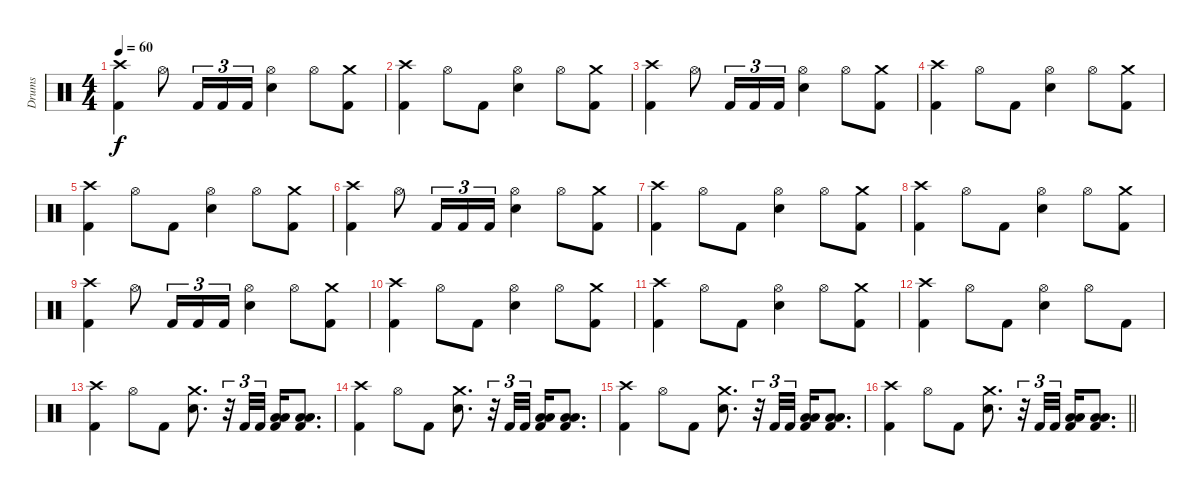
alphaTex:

\track ("Drums" "Drums") {instrument percussion}
\staff {score}
\articulation defaults
\ts (4 4)
\tempo 60
\clef neutral
\ks c
("Crash high (hit)" "Kick (hit) 2").4{dy f} "Hi-Hat (open)".8 "Kick (hit) 2".16{tu (3 2)} "Kick (hit) 2".16{tu (3 2)} "Kick (hit) 2".16{tu (3 2)} ("Hi-Hat (open)" "Electric Snare (hit)").4 "Hi-Hat (open)".8 ("Crash medium (hit)" "Kick (hit) 2").8 |
("Crash high (hit)" "Kick (hit) 2").4 "Hi-Hat (open)".8 "Kick (hit) 2".8 ("Hi-Hat (open)" "Electric Snare (hit)").4 "Hi-Hat (open)".8 ("Crash medium (hit)" "Kick (hit) 2").8 |
("Crash high (hit)" "Kick (hit) 2").4 "Hi-Hat (open)".8 "Kick (hit) 2".16{tu (3 2)} "Kick (hit) 2".16{tu (3 2)} "Kick (hit) 2".16{tu (3 2)} ("Hi-Hat (open)" "Electric Snare (hit)").4 "Hi-Hat (open)".8 ("Crash medium (hit)" "Kick (hit) 2").8 |
("Crash high (hit)" "Kick (hit) 2").4 "Hi-Hat (open)".8 "Kick (hit) 2".8 ("Hi-Hat (open)" "Electric Snare (hit)").4 "Hi-Hat (open)".8 ("Crash medium (hit)" "Kick (hit) 2").8 |
("Crash high (hit)" "Kick (hit) 2").4 "Hi-Hat (open)".8 "Kick (hit) 2".8 ("Hi-Hat (open)" "Electric Snare (hit)").4 "Hi-Hat (open)".8 ("Crash medium (hit)" "Kick (hit) 2").8 |
("Crash high (hit)" "Kick (hit) 2").4 "Hi-Hat (open)".8 "Kick (hit) 2".16{tu (3 2)} "Kick (hit) 2".16{tu (3 2)} "Kick (hit) 2".16{tu (3 2)} ("Hi-Hat (open)" "Electric Snare (hit)").4 "Hi-Hat (open)".8 ("Crash medium (hit)" "Kick (hit) 2").8 |
("Crash high (hit)" "Kick (hit) 2").4 "Hi-Hat (open)".8 "Kick (hit) 2".8 ("Hi-Hat (open)" "Electric Snare (hit)").4 "Hi-Hat (open)".8 ("Crash medium (hit)" "Kick (hit) 2").8 |
("Crash high (hit)" "Kick (hit) 2").4 "Hi-Hat (open)".8 "Kick (hit) 2".8 ("Hi-Hat (open)" "Electric Snare (hit)").4 "Hi-Hat (open)".8 ("Crash medium (hit)" "Kick (hit) 2").8 |
("Crash high (hit)" "Kick (hit) 2").4 "Hi-Hat (open)".8 "Kick (hit) 2".16{tu (3 2)} "Kick (hit) 2".16{tu (3 2)} "Kick (hit) 2".16{tu (3 2)} ("Hi-Hat (open)" "Electric Snare (hit)").4 "Hi-Hat (open)".8 ("Crash medium (hit)" "Kick (hit) 2").8 |
("Crash high (hit)" "Kick (hit) 2").4 "Hi-Hat (open)".8 "Kick (hit) 2".8 ("Hi-Hat (open)" "Electric Snare (hit)").4 "Hi-Hat (open)".8 ("Crash medium (hit)" "Kick (hit) 2").8 |
("Crash high (hit)" "Kick (hit) 2").4 "Hi-Hat (open)".8 "Kick (hit) 2".8 ("Hi-Hat (open)" "Electric Snare (hit)").4 "Hi-Hat (open)".8 ("Crash medium (hit)" "Kick (hit) 2").8 |
("Crash high (hit)" "Kick (hit) 2").4 "Hi-Hat (open)".8 "Kick (hit) 2".8 ("Hi-Hat (open)" "Electric Snare (hit)").4 "Hi-Hat (open)".8 "Kick (hit) 2".8 |
("Crash high (hit)" "Kick (hit) 2").4 "Hi-Hat (open)".8 "Kick (hit) 2".8 ("Crash medium (hit)" "Electric Snare (hit)").8{d} r.32{tu (3 2)} "Kick (hit) 2".32{tu (3 2)} "Kick (hit) 2".32{tu (3 2)} ("Low Tom (hit)" "Low Floor Tom (hit)" "Kick (hit) 2").16 ("Low Tom (hit)" "Low Floor Tom (hit)" "Kick (hit) 2").8{d} |
("Crash high (hit)" "Kick (hit) 2").4 "Hi-Hat (open)".8 "Kick (hit) 2".8 ("Crash medium (hit)" "Electric Snare (hit)").8{d} r.32{tu (3 2)} "Kick (hit) 2".32{tu (3 2)} "Kick (hit) 2".32{tu (3 2)} ("Low Tom (hit)" "Low Floor Tom (hit)" "Kick (hit) 2").16 ("Low Tom (hit)" "Low Floor Tom (hit)" "Kick (hit) 2").8{d} |
("Crash high (hit)" "Kick (hit) 2").4 "Hi-Hat (open)".8 "Kick (hit) 2".8 ("Crash medium (hit)" "Electric Snare (hit)").8{d} r.32{tu (3 2)} "Kick (hit) 2".32{tu (3 2)} "Kick (hit) 2".32{tu (3 2)} ("Low Tom (hit)" "Low Floor Tom (hit)" "Kick (hit) 2").16 ("Low Tom (hit)" "Low Floor Tom (hit)" "Kick (hit) 2").8{d} |
\barLineRight lightlight
("Crash high (hit)" "Kick (hit) 2").4 "Hi-Hat (open)".8 "Kick (hit) 2".8 ("Crash medium (hit)" "Electric Snare (hit)").8{d} r.32{tu (3 2)} "Kick (hit) 2".32{tu (3 2)} "Kick (hit) 2".32{tu (3 2)} ("Low Tom (hit)" "Low Floor Tom (hit)" "Kick (hit) 2").16 ("Low Tom (hit)" "Low Floor Tom (hit)" "Kick (hit) 2").8{d}
